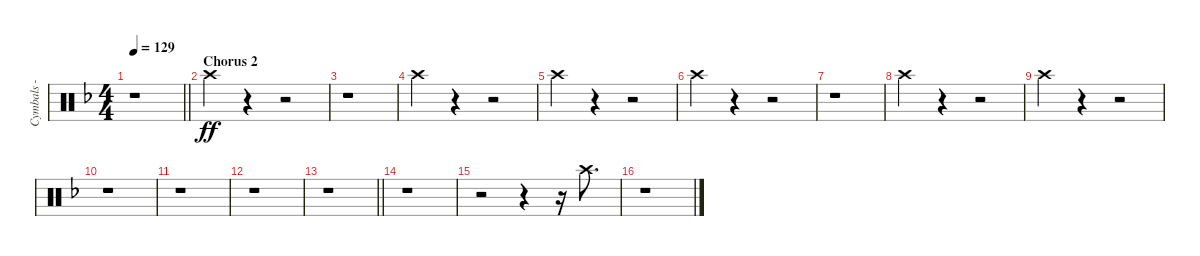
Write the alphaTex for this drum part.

\track ("Cymbals - crash" "Cymbals - ") {instrument percussion}
\staff {score}
\articulation defaults
\ts (4 4)
\tempo 129
\clef neutral
\barLineRight lightlight
\ks dminor
r.1{dy ff} |
\section ("" "Chorus 2")
"Crash high (hit)".4 r.4 r.2 |
r.1 |
"Crash high (hit)".4 r.4 r.2 |
"Crash high (hit)".4 r.4 r.2 |
"Crash high (hit)".4 r.4 r.2 |
r.1 |
"Crash high (hit)".4 r.4 r.2 |
"Crash high (hit)".4 r.4 r.2 |
r.1 |
r.1 |
r.1 |
\barLineRight lightlight
r.1 |
r.1 |
r.2 r.4 r.16 "Crash high (hit)".8{d} |
r.1
